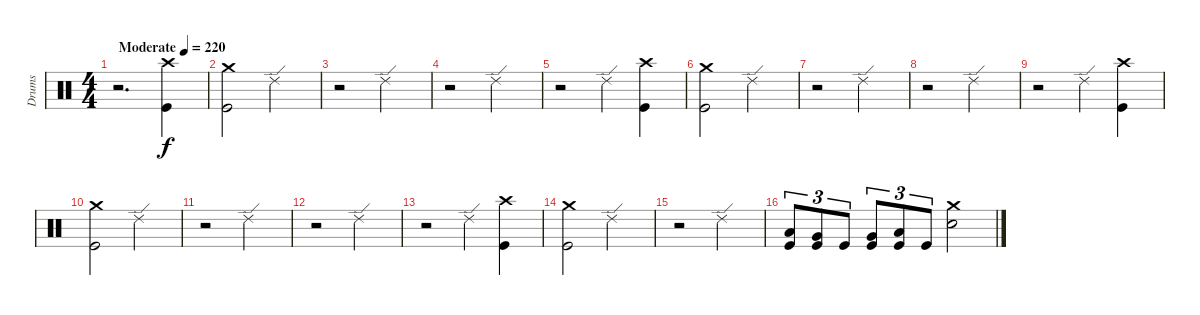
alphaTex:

\track ("Drums" "Drums") {instrument percussion}
\staff {score}
\articulation defaults
\ts (4 4)
\tempo (220 "Moderate")
\clef neutral
\ks c
r.2{d dy f} ("Crash high (hit)" "Kick (hit)").4 |
("Crash medium (hit)" "Kick (hit)").2 "Ride (edge) 2".2 |
r.2 "Ride (edge) 2".2 |
r.2 "Ride (edge) 2".2 |
r.2 "Ride (edge) 2".4 ("Crash high (hit)" "Kick (hit)").4 |
("Crash medium (hit)" "Kick (hit)").2 "Ride (edge) 2".2 |
r.2 "Ride (edge) 2".2 |
r.2 "Ride (edge) 2".2 |
r.2 "Ride (edge) 2".4 ("Crash high (hit)" "Kick (hit)").4 |
("Crash medium (hit)" "Kick (hit)").2 "Ride (edge) 2".2 |
r.2 "Ride (edge) 2".2 |
r.2 "Ride (edge) 2".2 |
r.2 "Ride (edge) 2".4 ("Crash high (hit)" "Kick (hit)").4 |
("Crash medium (hit)" "Kick (hit)").2 "Ride (edge) 2".2 |
r.2 "Ride (edge) 2".2 |
("Low Tom (hit)" "Kick (hit)").8{tu (3 2)} ("Very Low Tom (hit)" "Kick (hit)").8{tu (3 2)} "Kick (hit)".8{tu (3 2)} ("Very Low Tom (hit)" "Kick (hit)").8{tu (3 2)} ("Low Floor Tom (hit)" "Kick (hit)").8{tu (3 2)} "Kick (hit)".8{tu (3 2)} ("Crash medium (hit)" "Electric Snare (hit)").2
